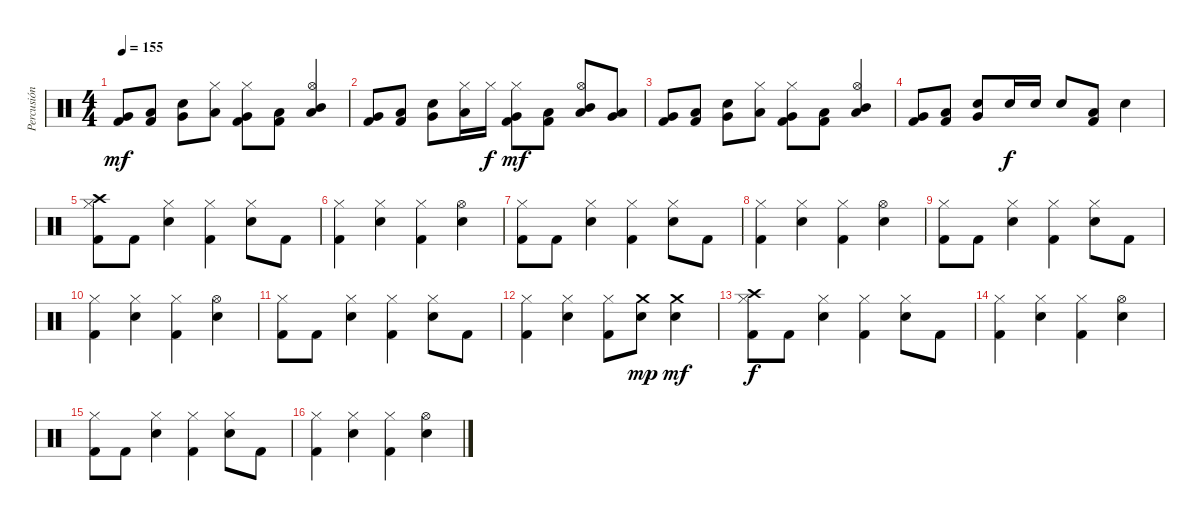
\track ("Percusión" "Percusión") {instrument percussion}
\staff {score}
\articulation defaults
\ts (4 4)
\tempo 155
\clef neutral
\ks c
("Kick (hit) 2" "Very Low Tom (hit)").8{dy mf} ("Kick (hit) 2" "Low Floor Tom (hit)").8 ("Snare (hit) 2" "Very Low Tom (hit)").8 ("Hi-Hat (closed)" "Low Tom (hit)").8 ("Hi-Hat (closed)" "Kick (hit) 2" "Very Low Tom (hit)").8 ("Kick (hit) 2" "Low Floor Tom (hit)").8 ("Hi-Hat (open)" "Mid Tom (hit)" "Low Floor Tom (hit)").4 |
("Kick (hit) 2" "Very Low Tom (hit)").8 ("Kick (hit) 2" "Low Floor Tom (hit)").8 ("Snare (hit) 2" "Very Low Tom (hit)").8 ("Hi-Hat (closed)" "Low Tom (hit)").16 "Hi-Hat (closed)".16{dy f} ("Hi-Hat (closed)" "Kick (hit) 2" "Very Low Tom (hit)").8{dy mf} ("Kick (hit) 2" "Low Floor Tom (hit)").8 ("Hi-Hat (open)" "Mid Tom (hit)" "Low Floor Tom (hit)").8 ("Low Tom (hit)" "Very Low Tom (hit)").8 |
("Kick (hit) 2" "Very Low Tom (hit)").8 ("Kick (hit) 2" "Low Floor Tom (hit)").8 ("Snare (hit) 2" "Very Low Tom (hit)").8 ("Hi-Hat (closed)" "Low Tom (hit)").8 ("Hi-Hat (closed)" "Kick (hit) 2" "Very Low Tom (hit)").8 ("Kick (hit) 2" "Low Floor Tom (hit)").8 ("Hi-Hat (open)" "Mid Tom (hit)" "Low Floor Tom (hit)").4 |
("Kick (hit) 2" "Very Low Tom (hit)").8 ("Kick (hit) 2" "Low Floor Tom (hit)").8 ("Snare (hit) 2" "Very Low Tom (hit)").8 "Snare (hit) 2".16{dy f} "Snare (hit) 2".16 "Snare (hit) 2".8 ("Kick (hit) 2" "Low Tom (hit)").8 "Snare (hit) 2".4 |
("Crash high (hit)" "Hi-Hat (closed)" "Kick (hit) 2").8 "Kick (hit) 2".8 ("Hi-Hat (closed)" "Snare (hit) 2").4 ("Hi-Hat (closed)" "Kick (hit) 2").4 ("Hi-Hat (closed)" "Snare (hit) 2").8 "Kick (hit) 2".8 |
("Hi-Hat (closed)" "Kick (hit) 2").4 ("Hi-Hat (closed)" "Snare (hit) 2").4 ("Hi-Hat (closed)" "Kick (hit) 2").4 ("Hi-Hat (open)" "Snare (hit) 2").4 |
("Hi-Hat (closed)" "Kick (hit) 2").8 "Kick (hit) 2".8 ("Hi-Hat (closed)" "Snare (hit) 2").4 ("Hi-Hat (closed)" "Kick (hit) 2").4 ("Hi-Hat (closed)" "Snare (hit) 2").8 "Kick (hit) 2".8 |
("Hi-Hat (closed)" "Kick (hit) 2").4 ("Hi-Hat (closed)" "Snare (hit) 2").4 ("Hi-Hat (closed)" "Kick (hit) 2").4 ("Hi-Hat (open)" "Snare (hit) 2").4 |
("Hi-Hat (closed)" "Kick (hit) 2").8 "Kick (hit) 2".8 ("Hi-Hat (closed)" "Snare (hit) 2").4 ("Hi-Hat (closed)" "Kick (hit) 2").4 ("Hi-Hat (closed)" "Snare (hit) 2").8 "Kick (hit) 2".8 |
("Hi-Hat (closed)" "Kick (hit) 2").4 ("Hi-Hat (closed)" "Snare (hit) 2").4 ("Hi-Hat (closed)" "Kick (hit) 2").4 ("Hi-Hat (open)" "Snare (hit) 2").4 |
("Hi-Hat (closed)" "Kick (hit) 2").8 "Kick (hit) 2".8 ("Hi-Hat (closed)" "Snare (hit) 2").4 ("Hi-Hat (closed)" "Kick (hit) 2").4 ("Hi-Hat (closed)" "Snare (hit) 2").8 "Kick (hit) 2".8 |
("Hi-Hat (closed)" "Kick (hit) 2").4 ("Hi-Hat (closed)" "Snare (hit) 2").4 ("Hi-Hat (closed)" "Kick (hit) 2").8 ("Crash medium (hit)" "Snare (hit) 2").8{dy mp} ("Crash medium (hit)" "Snare (hit) 2").4{dy mf} |
("Crash high (hit)" "Hi-Hat (closed)" "Kick (hit) 2").8{dy f} "Kick (hit) 2".8 ("Hi-Hat (closed)" "Snare (hit) 2").4 ("Hi-Hat (closed)" "Kick (hit) 2").4 ("Hi-Hat (closed)" "Snare (hit) 2").8 "Kick (hit) 2".8 |
("Hi-Hat (closed)" "Kick (hit) 2").4 ("Hi-Hat (closed)" "Snare (hit) 2").4 ("Hi-Hat (closed)" "Kick (hit) 2").4 ("Hi-Hat (open)" "Snare (hit) 2").4 |
("Hi-Hat (closed)" "Kick (hit) 2").8 "Kick (hit) 2".8 ("Hi-Hat (closed)" "Snare (hit) 2").4 ("Hi-Hat (closed)" "Kick (hit) 2").4 ("Hi-Hat (closed)" "Snare (hit) 2").8 "Kick (hit) 2".8 |
("Hi-Hat (closed)" "Kick (hit) 2").4 ("Hi-Hat (closed)" "Snare (hit) 2").4 ("Hi-Hat (closed)" "Kick (hit) 2").4 ("Hi-Hat (open)" "Snare (hit) 2").4
